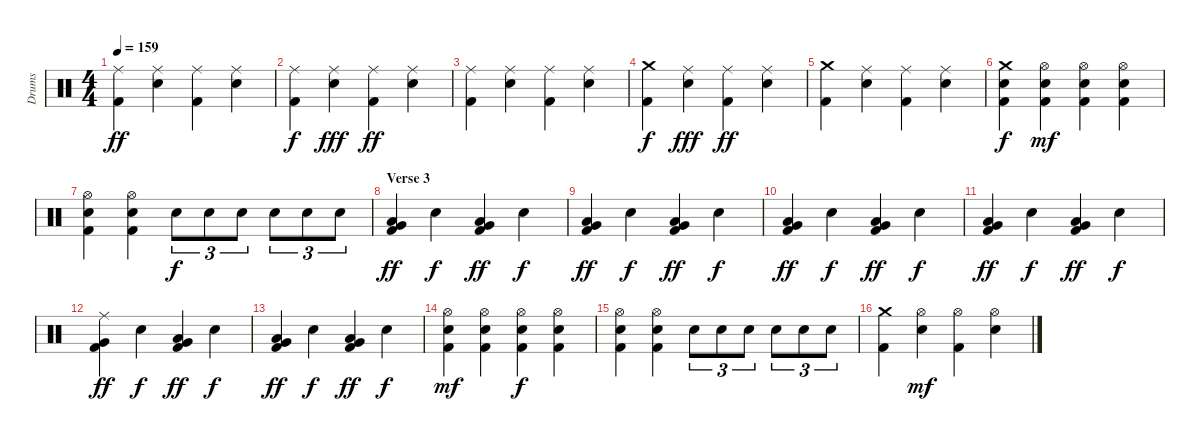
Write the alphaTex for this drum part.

\track ("Drums" "Drums") {instrument percussion}
\staff {score}
\articulation defaults
\ts (4 4)
\tempo 159
\clef neutral
\ks c
("Ride (middle)" "Kick (hit) 2").4{dy ff} ("Ride (middle)" "Snare (hit) 2").4 ("Ride (middle)" "Kick (hit) 2").4 ("Ride (middle)" "Snare (hit) 2").4 |
("Ride (middle)" "Kick (hit) 2").4{dy f} ("Ride (middle)" "Snare (hit) 2").4{dy fff} ("Ride (middle)" "Kick (hit) 2").4{dy ff} ("Ride (middle)" "Snare (hit) 2").4 |
("Ride (middle)" "Kick (hit) 2").4 ("Ride (middle)" "Snare (hit) 2").4 ("Ride (middle)" "Kick (hit) 2").4 ("Ride (middle)" "Snare (hit) 2").4 |
("Crash medium (hit)" "Kick (hit) 2").4{dy f} ("Ride (middle)" "Snare (hit) 2").4{dy fff} ("Ride (middle)" "Kick (hit) 2").4{dy ff} ("Ride (middle)" "Snare (hit) 2").4 |
("Crash medium (hit)" "Kick (hit) 2").4 ("Ride (middle)" "Snare (hit) 2").4 ("Ride (middle)" "Kick (hit) 2").4 ("Ride (middle)" "Snare (hit) 2").4 |
("Crash medium (hit)" "Snare (hit) 2" "Kick (hit) 2").4{dy f} ("Hi-Hat (open)" "Snare (hit) 2" "Kick (hit) 2").4{dy mf} ("Hi-Hat (open)" "Snare (hit) 2" "Kick (hit) 2").4 ("Hi-Hat (open)" "Snare (hit) 2" "Kick (hit) 2").4 |
("Hi-Hat (open)" "Snare (hit) 2" "Kick (hit) 2").4 ("Hi-Hat (open)" "Snare (hit) 2" "Kick (hit) 2").4 "Snare (hit) 2".8{tu (3 2) dy f} "Snare (hit) 2".8{tu (3 2)} "Snare (hit) 2".8{tu (3 2)} "Snare (hit) 2".8{tu (3 2)} "Snare (hit) 2".8{tu (3 2)} "Snare (hit) 2".8{tu (3 2)} |
\section ("" "Verse 3")
("Low Tom (hit)" "Very Low Tom (hit)" "Kick (hit) 2").4{dy ff} "Snare (hit) 2".4{dy f} ("Low Tom (hit)" "Very Low Tom (hit)" "Kick (hit) 2").4{dy ff} "Snare (hit) 2".4{dy f} |
("Low Tom (hit)" "Very Low Tom (hit)" "Kick (hit) 2").4{dy ff} "Snare (hit) 2".4{dy f} ("Low Tom (hit)" "Very Low Tom (hit)" "Kick (hit) 2").4{dy ff} "Snare (hit) 2".4{dy f} |
("Low Tom (hit)" "Very Low Tom (hit)" "Kick (hit) 2").4{dy ff} "Snare (hit) 2".4{dy f} ("Low Tom (hit)" "Very Low Tom (hit)" "Kick (hit) 2").4{dy ff} "Snare (hit) 2".4{dy f} |
("Low Tom (hit)" "Very Low Tom (hit)" "Kick (hit) 2").4{dy ff} "Snare (hit) 2".4{dy f} ("Low Tom (hit)" "Very Low Tom (hit)" "Kick (hit) 2").4{dy ff} "Snare (hit) 2".4{dy f} |
("Ride (middle)" "Very Low Tom (hit)" "Kick (hit) 2").4{dy ff} "Snare (hit) 2".4{dy f} ("Low Tom (hit)" "Very Low Tom (hit)" "Kick (hit) 2").4{dy ff} "Snare (hit) 2".4{dy f} |
("Low Tom (hit)" "Very Low Tom (hit)" "Kick (hit) 2").4{dy ff} "Snare (hit) 2".4{dy f} ("Low Tom (hit)" "Very Low Tom (hit)" "Kick (hit) 2").4{dy ff} "Snare (hit) 2".4{dy f} |
("Hi-Hat (open)" "Snare (hit) 2" "Kick (hit) 2").4{dy mf} ("Hi-Hat (open)" "Snare (hit) 2" "Kick (hit) 2").4 ("Hi-Hat (open)" "Snare (hit) 2" "Kick (hit) 2").4{dy f} ("Hi-Hat (open)" "Snare (hit) 2" "Kick (hit) 2").4 |
("Hi-Hat (open)" "Snare (hit) 2" "Kick (hit) 2").4 ("Hi-Hat (open)" "Snare (hit) 2" "Kick (hit) 2").4 "Snare (hit) 2".8{tu (3 2)} "Snare (hit) 2".8{tu (3 2)} "Snare (hit) 2".8{tu (3 2)} "Snare (hit) 2".8{tu (3 2)} "Snare (hit) 2".8{tu (3 2)} "Snare (hit) 2".8{tu (3 2)} |
("Crash medium (hit)" "Kick (hit) 2").4 ("Hi-Hat (open)" "Snare (hit) 2").4{dy mf} ("Hi-Hat (open)" "Kick (hit) 2").4 ("Hi-Hat (open)" "Snare (hit) 2").4
